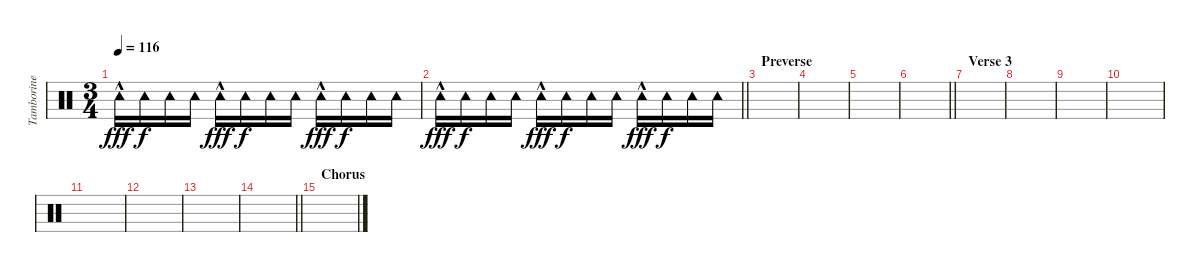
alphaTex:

\track ("Tamborine" "Tamborine") {instrument percussion}
\staff {score}
\articulation defaults
\ts (3 4)
\tempo 116
\clef neutral
\ks c "Tambourine (hit)"{hac}.16{dy fff} "Tambourine (hit)".16{dy f} "Tambourine (hit)".16 "Tambourine (hit)".16 "Tambourine (hit)"{hac}.16{dy fff} "Tambourine (hit)".16{dy f} "Tambourine (hit)".16 "Tambourine (hit)".16 "Tambourine (hit)"{hac}.16{dy fff} "Tambourine (hit)".16{dy f} "Tambourine (hit)".16 "Tambourine (hit)".16
|
\barLineRight lightlight "Tambourine (hit)"{hac}.16{dy fff} "Tambourine (hit)".16{dy f} "Tambourine (hit)".16 "Tambourine (hit)".16 "Tambourine (hit)"{hac}.16{dy fff} "Tambourine (hit)".16{dy f} "Tambourine (hit)".16 "Tambourine (hit)".16 "Tambourine (hit)"{hac}.16{dy fff} "Tambourine (hit)".16{dy f} "Tambourine (hit)".16 "Tambourine (hit)".16
|
\section ("" "Preverse")
|
|
|
\barLineRight lightlight
|
\section ("" "Verse 3")
|
|
|
|
|
|
|
\barLineRight lightlight
|
\section ("" "Chorus")
